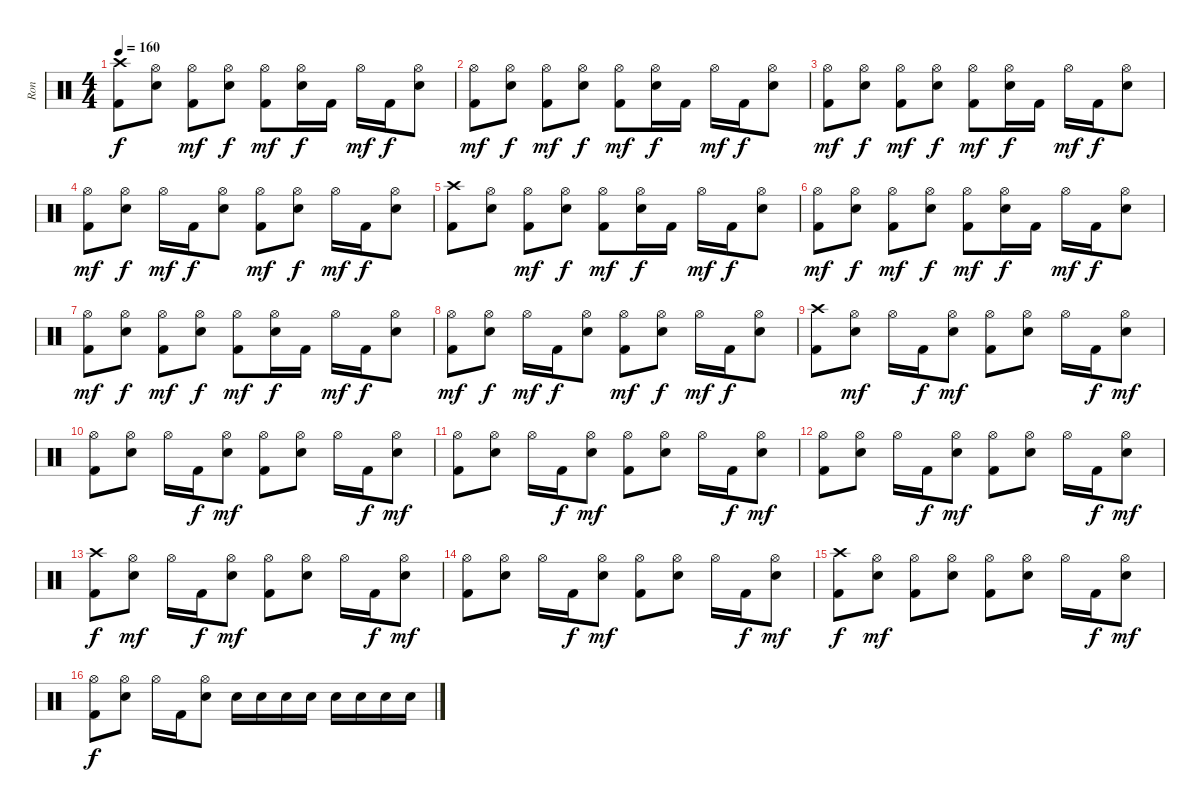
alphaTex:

\track ("Ron" "Ron") {instrument percussion}
\staff {score}
\articulation defaults
\ts (4 4)
\tempo 160
\clef neutral
\ks c
("Crash high (hit)" "Kick (hit) 2").8{dy f} ("Hi-Hat (open)" "Electric Snare (hit)").8 ("Hi-Hat (open)" "Kick (hit) 2").8{dy mf} ("Hi-Hat (open)" "Electric Snare (hit)").8{dy f} ("Hi-Hat (open)" "Kick (hit) 2").8{dy mf} ("Hi-Hat (open)" "Electric Snare (hit)").16{dy f} "Kick (hit) 2".16 "Hi-Hat (open)".16{dy mf} "Kick (hit) 2".16{dy f} ("Hi-Hat (open)" "Electric Snare (hit)").8 |
("Hi-Hat (open)" "Kick (hit) 2").8{dy mf} ("Hi-Hat (open)" "Electric Snare (hit)").8{dy f} ("Hi-Hat (open)" "Kick (hit) 2").8{dy mf} ("Hi-Hat (open)" "Electric Snare (hit)").8{dy f} ("Hi-Hat (open)" "Kick (hit) 2").8{dy mf} ("Hi-Hat (open)" "Electric Snare (hit)").16{dy f} "Kick (hit) 2".16 "Hi-Hat (open)".16{dy mf} "Kick (hit) 2".16{dy f} ("Hi-Hat (open)" "Electric Snare (hit)").8 |
("Hi-Hat (open)" "Kick (hit) 2").8{dy mf} ("Hi-Hat (open)" "Electric Snare (hit)").8{dy f} ("Hi-Hat (open)" "Kick (hit) 2").8{dy mf} ("Hi-Hat (open)" "Electric Snare (hit)").8{dy f} ("Hi-Hat (open)" "Kick (hit) 2").8{dy mf} ("Hi-Hat (open)" "Electric Snare (hit)").16{dy f} "Kick (hit) 2".16 "Hi-Hat (open)".16{dy mf} "Kick (hit) 2".16{dy f} ("Hi-Hat (open)" "Electric Snare (hit)").8 |
("Hi-Hat (open)" "Kick (hit) 2").8{dy mf} ("Hi-Hat (open)" "Electric Snare (hit)").8{dy f} "Hi-Hat (open)".16{dy mf} "Kick (hit) 2".16{dy f} ("Hi-Hat (open)" "Electric Snare (hit)").8 ("Hi-Hat (open)" "Kick (hit) 2").8{dy mf} ("Hi-Hat (open)" "Electric Snare (hit)").8{dy f} "Hi-Hat (open)".16{dy mf} "Kick (hit) 2".16{dy f} ("Hi-Hat (open)" "Electric Snare (hit)").8 |
("Crash high (hit)" "Kick (hit) 2").8 ("Hi-Hat (open)" "Electric Snare (hit)").8 ("Hi-Hat (open)" "Kick (hit) 2").8{dy mf} ("Hi-Hat (open)" "Electric Snare (hit)").8{dy f} ("Hi-Hat (open)" "Kick (hit) 2").8{dy mf} ("Hi-Hat (open)" "Electric Snare (hit)").16{dy f} "Kick (hit) 2".16 "Hi-Hat (open)".16{dy mf} "Kick (hit) 2".16{dy f} ("Hi-Hat (open)" "Electric Snare (hit)").8 |
("Hi-Hat (open)" "Kick (hit) 2").8{dy mf} ("Hi-Hat (open)" "Electric Snare (hit)").8{dy f} ("Hi-Hat (open)" "Kick (hit) 2").8{dy mf} ("Hi-Hat (open)" "Electric Snare (hit)").8{dy f} ("Hi-Hat (open)" "Kick (hit) 2").8{dy mf} ("Hi-Hat (open)" "Electric Snare (hit)").16{dy f} "Kick (hit) 2".16 "Hi-Hat (open)".16{dy mf} "Kick (hit) 2".16{dy f} ("Hi-Hat (open)" "Electric Snare (hit)").8 |
("Hi-Hat (open)" "Kick (hit) 2").8{dy mf} ("Hi-Hat (open)" "Electric Snare (hit)").8{dy f} ("Hi-Hat (open)" "Kick (hit) 2").8{dy mf} ("Hi-Hat (open)" "Electric Snare (hit)").8{dy f} ("Hi-Hat (open)" "Kick (hit) 2").8{dy mf} ("Hi-Hat (open)" "Electric Snare (hit)").16{dy f} "Kick (hit) 2".16 "Hi-Hat (open)".16{dy mf} "Kick (hit) 2".16{dy f} ("Hi-Hat (open)" "Electric Snare (hit)").8 |
("Hi-Hat (open)" "Kick (hit) 2").8{dy mf} ("Hi-Hat (open)" "Electric Snare (hit)").8{dy f} "Hi-Hat (open)".16{dy mf} "Kick (hit) 2".16{dy f} ("Hi-Hat (open)" "Electric Snare (hit)").8 ("Hi-Hat (open)" "Kick (hit) 2").8{dy mf} ("Hi-Hat (open)" "Electric Snare (hit)").8{dy f} "Hi-Hat (open)".16{dy mf} "Kick (hit) 2".16{dy f} ("Hi-Hat (open)" "Electric Snare (hit)").8 |
("Crash high (hit)" "Kick (hit) 2").8 ("Hi-Hat (open)" "Electric Snare (hit)").8{dy mf} "Hi-Hat (open)".16 "Kick (hit) 2".16{dy f} ("Hi-Hat (open)" "Electric Snare (hit)").8{dy mf} ("Hi-Hat (open)" "Kick (hit) 2").8 ("Hi-Hat (open)" "Electric Snare (hit)").8 "Hi-Hat (open)".16 "Kick (hit) 2".16{dy f} ("Hi-Hat (open)" "Electric Snare (hit)").8{dy mf} |
("Hi-Hat (open)" "Kick (hit) 2").8 ("Hi-Hat (open)" "Electric Snare (hit)").8 "Hi-Hat (open)".16 "Kick (hit) 2".16{dy f} ("Hi-Hat (open)" "Electric Snare (hit)").8{dy mf} ("Hi-Hat (open)" "Kick (hit) 2").8 ("Hi-Hat (open)" "Electric Snare (hit)").8 "Hi-Hat (open)".16 "Kick (hit) 2".16{dy f} ("Hi-Hat (open)" "Electric Snare (hit)").8{dy mf} |
("Hi-Hat (open)" "Kick (hit) 2").8 ("Hi-Hat (open)" "Electric Snare (hit)").8 "Hi-Hat (open)".16 "Kick (hit) 2".16{dy f} ("Hi-Hat (open)" "Electric Snare (hit)").8{dy mf} ("Hi-Hat (open)" "Kick (hit) 2").8 ("Hi-Hat (open)" "Electric Snare (hit)").8 "Hi-Hat (open)".16 "Kick (hit) 2".16{dy f} ("Hi-Hat (open)" "Electric Snare (hit)").8{dy mf} |
("Hi-Hat (open)" "Kick (hit) 2").8 ("Hi-Hat (open)" "Electric Snare (hit)").8 "Hi-Hat (open)".16 "Kick (hit) 2".16{dy f} ("Hi-Hat (open)" "Electric Snare (hit)").8{dy mf} ("Hi-Hat (open)" "Kick (hit) 2").8 ("Hi-Hat (open)" "Electric Snare (hit)").8 "Hi-Hat (open)".16 "Kick (hit) 2".16{dy f} ("Hi-Hat (open)" "Electric Snare (hit)").8{dy mf} |
("Crash high (hit)" "Kick (hit) 2").8{dy f} ("Hi-Hat (open)" "Electric Snare (hit)").8{dy mf} "Hi-Hat (open)".16 "Kick (hit) 2".16{dy f} ("Hi-Hat (open)" "Electric Snare (hit)").8{dy mf} ("Hi-Hat (open)" "Kick (hit) 2").8 ("Hi-Hat (open)" "Electric Snare (hit)").8 "Hi-Hat (open)".16 "Kick (hit) 2".16{dy f} ("Hi-Hat (open)" "Electric Snare (hit)").8{dy mf} |
("Hi-Hat (open)" "Kick (hit) 2").8 ("Hi-Hat (open)" "Electric Snare (hit)").8 "Hi-Hat (open)".16 "Kick (hit) 2".16{dy f} ("Hi-Hat (open)" "Electric Snare (hit)").8{dy mf} ("Hi-Hat (open)" "Kick (hit) 2").8 ("Hi-Hat (open)" "Electric Snare (hit)").8 "Hi-Hat (open)".16 "Kick (hit) 2".16{dy f} ("Hi-Hat (open)" "Electric Snare (hit)").8{dy mf} |
("Crash high (hit)" "Kick (hit) 2").8{dy f} ("Hi-Hat (open)" "Electric Snare (hit)").8{dy mf} ("Hi-Hat (open)" "Kick (hit) 2").8 ("Hi-Hat (open)" "Electric Snare (hit)").8 ("Hi-Hat (open)" "Kick (hit) 2").8 ("Hi-Hat (open)" "Electric Snare (hit)").8 "Hi-Hat (open)".16 "Kick (hit) 2".16{dy f} ("Hi-Hat (open)" "Electric Snare (hit)").8{dy mf} |
("Hi-Hat (open)" "Kick (hit) 2").8{dy f} ("Hi-Hat (open)" "Electric Snare (hit)").8 "Hi-Hat (open)".16 "Kick (hit) 2".16 ("Hi-Hat (open)" "Electric Snare (hit)").8 "Electric Snare (hit)".16 "Electric Snare (hit)".16 "Electric Snare (hit)".16 "Electric Snare (hit)".16 "Electric Snare (hit)".16 "Electric Snare (hit)".16 "Electric Snare (hit)".16 "Electric Snare (hit)".16
